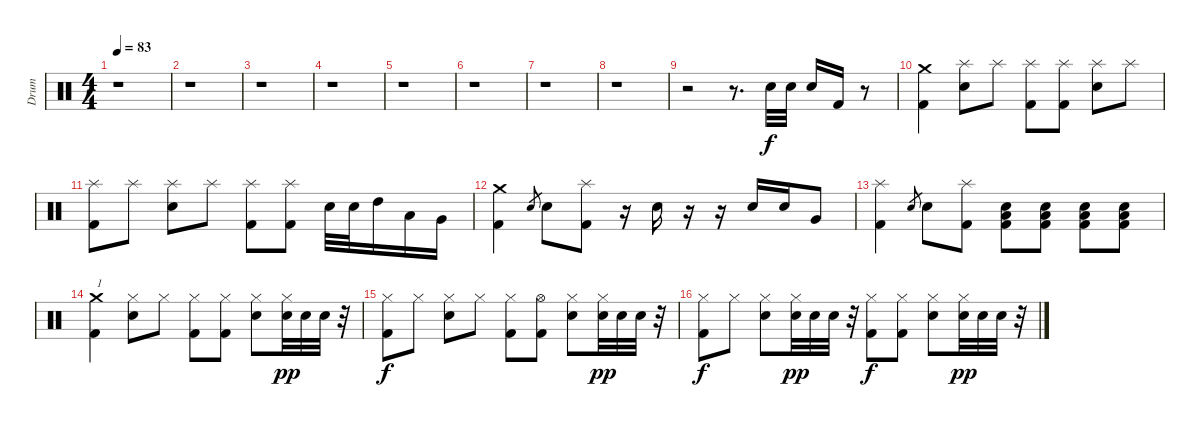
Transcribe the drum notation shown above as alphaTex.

\track ("Drum" "Drum") {instrument percussion}
\staff {score}
\articulation defaults
\ts (4 4)
\tempo 83
\clef neutral
\ks c
r.1{dy f} |
r.1 |
r.1 |
r.1 |
r.1 |
r.1 |
r.1 |
r.1 |
r.2 r.8{d} "Snare (hit) 2".32 "Snare (hit) 2".32 "Electric Snare (hit)".16 "Kick (hit) 2".16 r.8 |
("Crash medium (hit)" "Kick (hit) 2").4 ("Splash (hit)" "Electric Snare (hit)").8 "Splash (hit)".8 ("Splash (hit)" "Kick (hit) 2").8 ("Splash (hit)" "Kick (hit) 2").8 ("Splash (hit)" "Electric Snare (hit)").8 "Splash (hit)".8 |
("Splash (hit)" "Kick (hit) 2").8 "Splash (hit)".8 ("Splash (hit)" "Electric Snare (hit)").8 "Splash (hit)".8 ("Splash (hit)" "Kick (hit) 2").8 ("Splash (hit)" "Kick (hit) 2").8 "Electric Snare (hit)".32 "Electric Snare (hit)".32 "High Tom (hit)".16 "Low Tom (hit)".16 "Very Low Tom (hit)".16 |
("Crash medium (hit)" "Kick (hit) 2").4 "Electric Snare (hit)".8{gr} "Electric Snare (hit)".8 ("Splash (hit)" "Kick (hit) 2").8 r.16 "Electric Snare (hit)".16 r.16 r.16 "Electric Snare (hit)".16 "Electric Snare (hit)".16 "Very Low Tom (hit)".8 |
("Splash (hit)" "Kick (hit) 2").4 "Electric Snare (hit)".8{gr} "Electric Snare (hit)".8 ("Splash (hit)" "Kick (hit) 2").8 ("Low Tom (hit)" "Electric Snare (hit)" "Kick (hit) 2").8 ("Low Tom (hit)" "Electric Snare (hit)" "Kick (hit) 2").8 ("Low Tom (hit)" "Electric Snare (hit)" "Kick (hit) 2").8 ("Low Tom (hit)" "Electric Snare (hit)" "Kick (hit) 2").8 |
("Crash medium (hit)" "Kick (hit) 2").4{txt "1"} ("Hi-Hat (closed)" "Electric Snare (hit)").8 "Hi-Hat (closed)".8 ("Hi-Hat (closed)" "Kick (hit) 2").8 ("Hi-Hat (closed)" "Kick (hit) 2").8 ("Hi-Hat (closed)" "Electric Snare (hit)").8 ("Hi-Hat (closed)" "Snare (hit) 2").32{dy pp} "Snare (hit) 2".32 "Snare (hit) 2".32 r.32 |
("Hi-Hat (closed)" "Kick (hit) 2").8{dy f} "Hi-Hat (closed)".8 ("Hi-Hat (closed)" "Electric Snare (hit)").8 "Hi-Hat (closed)".8 ("Hi-Hat (closed)" "Kick (hit) 2").8 ("Hi-Hat (open)" "Kick (hit) 2").8 ("Hi-Hat (closed)" "Electric Snare (hit)").8 ("Hi-Hat (closed)" "Snare (hit) 2").32{dy pp} "Snare (hit) 2".32 "Snare (hit) 2".32 r.32 |
("Hi-Hat (closed)" "Kick (hit) 2").8{dy f} "Hi-Hat (closed)".8 ("Hi-Hat (closed)" "Electric Snare (hit)").8 ("Hi-Hat (closed)" "Snare (hit) 2").32{dy pp} "Snare (hit) 2".32 "Snare (hit) 2".32 r.32 ("Hi-Hat (closed)" "Kick (hit) 2").8{dy f} ("Hi-Hat (closed)" "Kick (hit) 2").8 ("Hi-Hat (closed)" "Electric Snare (hit)").8 ("Hi-Hat (closed)" "Snare (hit) 2").32{dy pp} "Snare (hit) 2".32 "Snare (hit) 2".32 r.32
